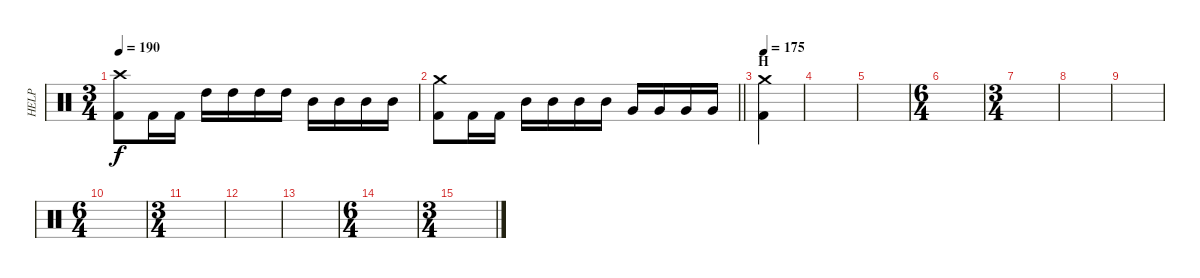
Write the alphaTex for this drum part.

\track ("HELP" "HELP") {instrument percussion}
\staff {score}
\articulation defaults
\ts (3 4)
\tempo 190
\clef neutral
\ks c
("Crash high (hit)" "Kick (hit) 2").8{dy f} "Kick (hit) 2".16 "Kick (hit) 2".16 "High Tom (hit)".16 "High Tom (hit)".16 "High Tom (hit)".16 "High Tom (hit)".16 "Mid Tom (hit)".16 "Mid Tom (hit)".16 "Mid Tom (hit)".16 "Mid Tom (hit)".16 |
\barLineRight lightlight
("Crash medium (hit)" "Kick (hit) 2").8 "Kick (hit) 2".16 "Kick (hit) 2".16 "Mid Tom (hit)".16 "Mid Tom (hit)".16 "Mid Tom (hit)".16 "Mid Tom (hit)".16 "Very Low Tom (hit)".16 "Very Low Tom (hit)".16 "Very Low Tom (hit)".16 "Very Low Tom (hit)".16 |
\section ("" "H")
\tempo 175
("Crash medium (hit)" "Kick (hit) 2").4 |
|
|
\ts (6 4)
|
\ts (3 4)
|
|
|
\ts (6 4)
|
\ts (3 4)
|
|
|
\ts (6 4)
|
\ts (3 4)
